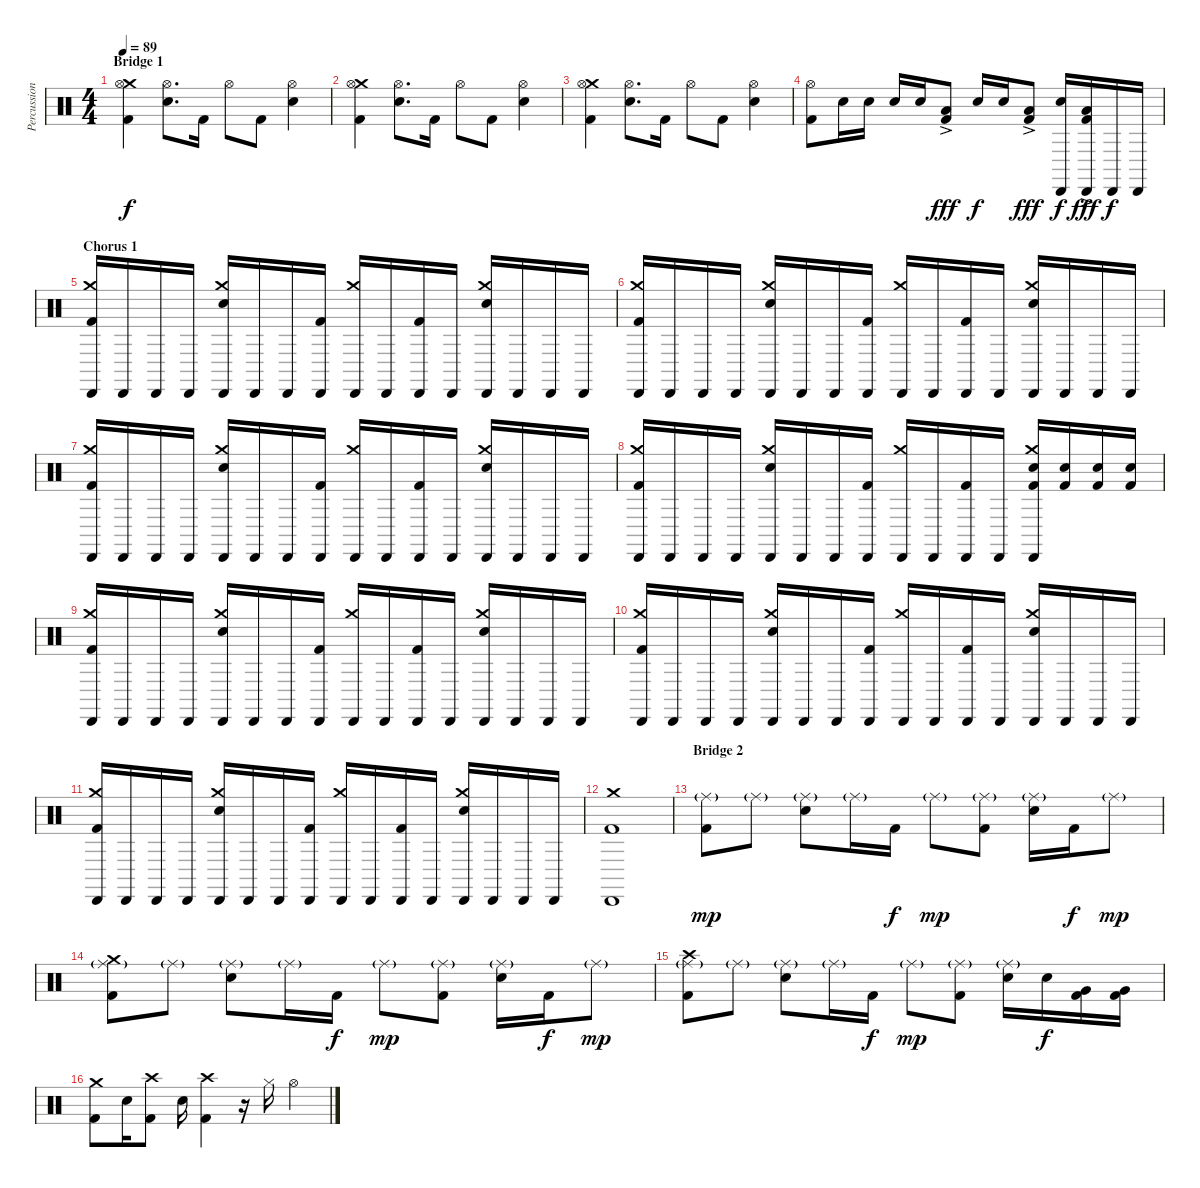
\track ("Percussions" "Percussion") {instrument percussion}
\staff {score}
\articulation defaults
\ts (4 4)
\section ("" "Bridge 1")
\tempo 89
\clef neutral
\ks c
("Crash medium (hit)" "Hi-Hat (open)" "Kick (hit) 2").4{dy f} ("Hi-Hat (open)" "Electric Snare (hit)").8{d} "Kick (hit) 2".16 "Hi-Hat (open)".8 "Kick (hit) 2".8 ("Hi-Hat (open)" "Electric Snare (hit)").4 |
("Crash medium (hit)" "Hi-Hat (open)" "Kick (hit) 2").4 ("Hi-Hat (open)" "Electric Snare (hit)").8{d} "Kick (hit) 2".16 "Hi-Hat (open)".8 "Kick (hit) 2".8 ("Hi-Hat (open)" "Electric Snare (hit)").4 |
("Crash medium (hit)" "Hi-Hat (open)" "Kick (hit) 2").4 ("Hi-Hat (open)" "Electric Snare (hit)").8{d} "Kick (hit) 2".16 "Hi-Hat (open)".8 "Kick (hit) 2".8 ("Hi-Hat (open)" "Electric Snare (hit)").4 |
("Hi-Hat (open)" "Kick (hit) 2").8 "Electric Snare (hit)".16 "Electric Snare (hit)".16 "Electric Snare (hit)".16 "Electric Snare (hit)".16 ("Low Floor Tom (hit)"{ac} "Kick (hit) 2").8{dy fff} "Electric Snare (hit)".16{dy f} "Electric Snare (hit)".16 ("Low Floor Tom (hit)"{ac} "Kick (hit) 2").8{dy fff} ("Cabasa (hit)" "Electric Snare (hit)").16{dy f} ("Cabasa (hit)" "Low Floor Tom (hit)"{ac} "Kick (hit) 2").16{dy fff} "Cabasa (hit)".16{dy f} "Cabasa (hit)".16 |
\section ("" "Chorus 1")
("Crash medium (hit)" "Cabasa (hit)" "Kick (hit) 2").16 "Cabasa (hit)".16 "Cabasa (hit)".16 "Cabasa (hit)".16 ("Crash medium (hit)" "Cabasa (hit)" "Electric Snare (hit)").16 "Cabasa (hit)".16 "Cabasa (hit)".16 ("Cabasa (hit)" "Kick (hit) 2").16 ("Crash medium (hit)" "Cabasa (hit)").16 "Cabasa (hit)".16 ("Cabasa (hit)" "Kick (hit) 2").16 "Cabasa (hit)".16 ("Crash medium (hit)" "Cabasa (hit)" "Electric Snare (hit)").16 "Cabasa (hit)".16 "Cabasa (hit)".16 "Cabasa (hit)".16 |
("Crash medium (hit)" "Cabasa (hit)" "Kick (hit) 2").16 "Cabasa (hit)".16 "Cabasa (hit)".16 "Cabasa (hit)".16 ("Crash medium (hit)" "Cabasa (hit)" "Electric Snare (hit)").16 "Cabasa (hit)".16 "Cabasa (hit)".16 ("Cabasa (hit)" "Kick (hit) 2").16 ("Crash medium (hit)" "Cabasa (hit)").16 "Cabasa (hit)".16 ("Cabasa (hit)" "Kick (hit) 2").16 "Cabasa (hit)".16 ("Crash medium (hit)" "Cabasa (hit)" "Electric Snare (hit)").16 "Cabasa (hit)".16 "Cabasa (hit)".16 "Cabasa (hit)".16 |
("Crash medium (hit)" "Cabasa (hit)" "Kick (hit) 2").16 "Cabasa (hit)".16 "Cabasa (hit)".16 "Cabasa (hit)".16 ("Crash medium (hit)" "Cabasa (hit)" "Electric Snare (hit)").16 "Cabasa (hit)".16 "Cabasa (hit)".16 ("Cabasa (hit)" "Kick (hit) 2").16 ("Crash medium (hit)" "Cabasa (hit)").16 "Cabasa (hit)".16 ("Cabasa (hit)" "Kick (hit) 2").16 "Cabasa (hit)".16 ("Crash medium (hit)" "Cabasa (hit)" "Electric Snare (hit)").16 "Cabasa (hit)".16 "Cabasa (hit)".16 "Cabasa (hit)".16 |
("Crash medium (hit)" "Cabasa (hit)" "Kick (hit) 2").16 "Cabasa (hit)".16 "Cabasa (hit)".16 "Cabasa (hit)".16 ("Crash medium (hit)" "Cabasa (hit)" "Electric Snare (hit)").16 "Cabasa (hit)".16 "Cabasa (hit)".16 ("Cabasa (hit)" "Kick (hit) 2").16 ("Crash medium (hit)" "Cabasa (hit)").16 "Cabasa (hit)".16 ("Cabasa (hit)" "Kick (hit) 2").16 "Cabasa (hit)".16 ("Crash medium (hit)" "Cabasa (hit)" "Electric Snare (hit)" "Kick (hit) 2").16 ("Electric Snare (hit)" "Kick (hit) 2").16 ("Electric Snare (hit)" "Kick (hit) 2").16 ("Electric Snare (hit)" "Kick (hit) 2").16 |
("Crash medium (hit)" "Cabasa (hit)" "Kick (hit) 2").16 "Cabasa (hit)".16 "Cabasa (hit)".16 "Cabasa (hit)".16 ("Crash medium (hit)" "Cabasa (hit)" "Electric Snare (hit)").16 "Cabasa (hit)".16 "Cabasa (hit)".16 ("Cabasa (hit)" "Kick (hit) 2").16 ("Crash medium (hit)" "Cabasa (hit)").16 "Cabasa (hit)".16 ("Cabasa (hit)" "Kick (hit) 2").16 "Cabasa (hit)".16 ("Crash medium (hit)" "Cabasa (hit)" "Electric Snare (hit)").16 "Cabasa (hit)".16 "Cabasa (hit)".16 "Cabasa (hit)".16 |
("Crash medium (hit)" "Cabasa (hit)" "Kick (hit) 2").16 "Cabasa (hit)".16 "Cabasa (hit)".16 "Cabasa (hit)".16 ("Crash medium (hit)" "Cabasa (hit)" "Electric Snare (hit)").16 "Cabasa (hit)".16 "Cabasa (hit)".16 ("Cabasa (hit)" "Kick (hit) 2").16 ("Crash medium (hit)" "Cabasa (hit)").16 "Cabasa (hit)".16 ("Cabasa (hit)" "Kick (hit) 2").16 "Cabasa (hit)".16 ("Crash medium (hit)" "Cabasa (hit)" "Electric Snare (hit)").16 "Cabasa (hit)".16 "Cabasa (hit)".16 "Cabasa (hit)".16 |
("Crash medium (hit)" "Cabasa (hit)" "Kick (hit) 2").16 "Cabasa (hit)".16 "Cabasa (hit)".16 "Cabasa (hit)".16 ("Crash medium (hit)" "Cabasa (hit)" "Electric Snare (hit)").16 "Cabasa (hit)".16 "Cabasa (hit)".16 ("Cabasa (hit)" "Kick (hit) 2").16 ("Crash medium (hit)" "Cabasa (hit)").16 "Cabasa (hit)".16 ("Cabasa (hit)" "Kick (hit) 2").16 "Cabasa (hit)".16 ("Crash medium (hit)" "Cabasa (hit)" "Electric Snare (hit)").16 "Cabasa (hit)".16 "Cabasa (hit)".16 "Cabasa (hit)".16 |
("Crash medium (hit)" "Cabasa (hit)" "Kick (hit) 2").1 |
\section ("" "Bridge 2")
("Ride (middle)"{g} "Kick (hit) 2").8{dy mp} "Ride (middle)"{g}.8 ("Ride (middle)"{g} "Electric Snare (hit)").8 "Ride (middle)"{g}.16 "Kick (hit) 2".16{dy f} "Ride (middle)"{g}.8{dy mp} ("Ride (middle)"{g} "Kick (hit) 2").8 ("Ride (middle)"{g} "Electric Snare (hit)").16 "Kick (hit) 2".16{dy f} "Ride (middle)"{g}.8{dy mp} |
("Crash medium (hit)" "Ride (middle)"{g} "Kick (hit) 2").8 "Ride (middle)"{g}.8 ("Ride (middle)"{g} "Electric Snare (hit)").8 "Ride (middle)"{g}.16 "Kick (hit) 2".16{dy f} "Ride (middle)"{g}.8{dy mp} ("Ride (middle)"{g} "Kick (hit) 2").8 ("Ride (middle)"{g} "Electric Snare (hit)").16 "Kick (hit) 2".16{dy f} "Ride (middle)"{g}.8{dy mp} |
("Crash high (hit)" "Ride (middle)"{g} "Kick (hit) 2").8 "Ride (middle)"{g}.8 ("Ride (middle)"{g} "Electric Snare (hit)").8 "Ride (middle)"{g}.16 "Kick (hit) 2".16{dy f} "Ride (middle)"{g}.8{dy mp} ("Ride (middle)"{g} "Kick (hit) 2").8 ("Ride (middle)"{g} "Electric Snare (hit)").16 "Electric Snare (hit)".16{dy f} ("Very Low Tom (hit)" "Kick (hit) 2").16 ("Very Low Tom (hit)" "Kick (hit) 2").16 |
("Crash medium (hit)" "Kick (hit) 2").8 "Electric Snare (hit)".16 ("Crash high (hit)" "Kick (hit) 2").8 "Electric Snare (hit)".16 ("Crash high (hit)" "Kick (hit) 2").4 r.16 "Hi-Hat (closed)".16 "Hi-Hat (open)".4
